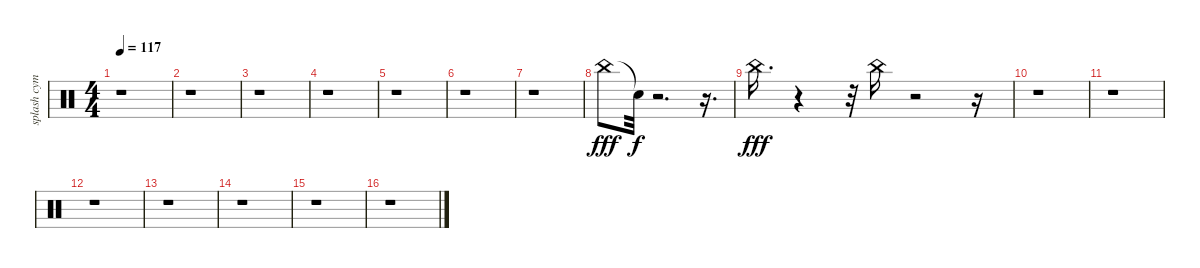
\track ("splash cymbal" "splash cym") {instrument percussion}
\staff {score}
\articulation defaults
\ts (4 4)
\tempo 117
\clef neutral
\ks c
r.1{dy fff} |
r.1 |
r.1 |
r.1 |
r.1 |
r.1 |
r.1 |
"China (hit)".8 "Snare (hit)"{t}.32{dy f} r.2{d} r.16{d} |
"China (hit)".16{d dy fff} r.4 r.32 "China (hit)".16 r.2 r.16 |
r.1 |
r.1 |
r.1 |
r.1 |
r.1 |
r.1 |
r.1
